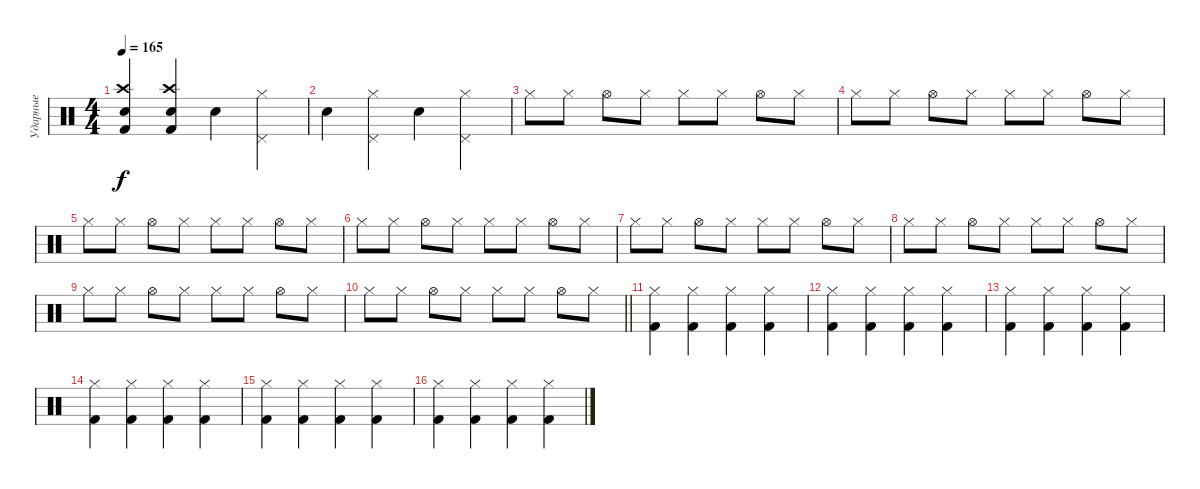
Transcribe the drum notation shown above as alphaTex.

\track ("Ударные" "Ударные") {instrument percussion}
\staff {score}
\articulation defaults
\ts (4 4)
\tempo 165
\clef neutral
\ks c
("Kick (hit) 2" "Crash high (hit)" "Snare (hit) 2").4{dy f} ("Kick (hit) 2" "Crash high (hit)" "Snare (hit) 2").4 "Snare (hit) 2".4 ("Hi-Hat (closed)" "Pedal Hi-Hat (hit)").4 |
"Electric Snare (hit)".4 ("Hi-Hat (closed)" "Pedal Hi-Hat (hit)").4 "Electric Snare (hit)".4 ("Hi-Hat (closed)" "Pedal Hi-Hat (hit)").4 |
"Hi-Hat (closed)".8 "Hi-Hat (closed)".8 "Hi-Hat (open)".8 "Hi-Hat (closed)".8 "Hi-Hat (closed)".8 "Hi-Hat (closed)".8 "Hi-Hat (open)".8 "Hi-Hat (closed)".8 |
"Hi-Hat (closed)".8 "Hi-Hat (closed)".8 "Hi-Hat (open)".8 "Hi-Hat (closed)".8 "Hi-Hat (closed)".8 "Hi-Hat (closed)".8 "Hi-Hat (open)".8 "Hi-Hat (closed)".8 |
"Hi-Hat (closed)".8 "Hi-Hat (closed)".8 "Hi-Hat (open)".8 "Hi-Hat (closed)".8 "Hi-Hat (closed)".8 "Hi-Hat (closed)".8 "Hi-Hat (open)".8 "Hi-Hat (closed)".8 |
"Hi-Hat (closed)".8 "Hi-Hat (closed)".8 "Hi-Hat (open)".8 "Hi-Hat (closed)".8 "Hi-Hat (closed)".8 "Hi-Hat (closed)".8 "Hi-Hat (open)".8 "Hi-Hat (closed)".8 |
"Hi-Hat (closed)".8 "Hi-Hat (closed)".8 "Hi-Hat (open)".8 "Hi-Hat (closed)".8 "Hi-Hat (closed)".8 "Hi-Hat (closed)".8 "Hi-Hat (open)".8 "Hi-Hat (closed)".8 |
"Hi-Hat (closed)".8 "Hi-Hat (closed)".8 "Hi-Hat (open)".8 "Hi-Hat (closed)".8 "Hi-Hat (closed)".8 "Hi-Hat (closed)".8 "Hi-Hat (open)".8 "Hi-Hat (closed)".8 |
"Hi-Hat (closed)".8 "Hi-Hat (closed)".8 "Hi-Hat (open)".8 "Hi-Hat (closed)".8 "Hi-Hat (closed)".8 "Hi-Hat (closed)".8 "Hi-Hat (open)".8 "Hi-Hat (closed)".8 |
\barLineRight lightlight "Hi-Hat (closed)".8 "Hi-Hat (closed)".8 "Hi-Hat (open)".8 "Hi-Hat (closed)".8 "Hi-Hat (closed)".8 "Hi-Hat (closed)".8 "Hi-Hat (open)".8 "Hi-Hat (closed)".8
|
("Kick (hit) 2" "Hi-Hat (closed)").4 ("Hi-Hat (closed)" "Kick (hit) 2").4 ("Hi-Hat (closed)" "Kick (hit) 2").4 ("Hi-Hat (closed)" "Kick (hit) 2").4 |
("Kick (hit) 2" "Hi-Hat (closed)").4 ("Hi-Hat (closed)" "Kick (hit) 2").4 ("Hi-Hat (closed)" "Kick (hit) 2").4 ("Hi-Hat (closed)" "Kick (hit) 2").4 |
("Kick (hit) 2" "Hi-Hat (closed)").4 ("Hi-Hat (closed)" "Kick (hit) 2").4 ("Hi-Hat (closed)" "Kick (hit) 2").4 ("Hi-Hat (closed)" "Kick (hit) 2").4 |
("Kick (hit) 2" "Hi-Hat (closed)").4 ("Hi-Hat (closed)" "Kick (hit) 2").4 ("Hi-Hat (closed)" "Kick (hit) 2").4 ("Hi-Hat (closed)" "Kick (hit) 2").4 |
("Kick (hit) 2" "Hi-Hat (closed)").4 ("Hi-Hat (closed)" "Kick (hit) 2").4 ("Hi-Hat (closed)" "Kick (hit) 2").4 ("Hi-Hat (closed)" "Kick (hit) 2").4 |
("Kick (hit) 2" "Hi-Hat (closed)").4 ("Hi-Hat (closed)" "Kick (hit) 2").4 ("Hi-Hat (closed)" "Kick (hit) 2").4 ("Hi-Hat (closed)" "Kick (hit) 2").4
